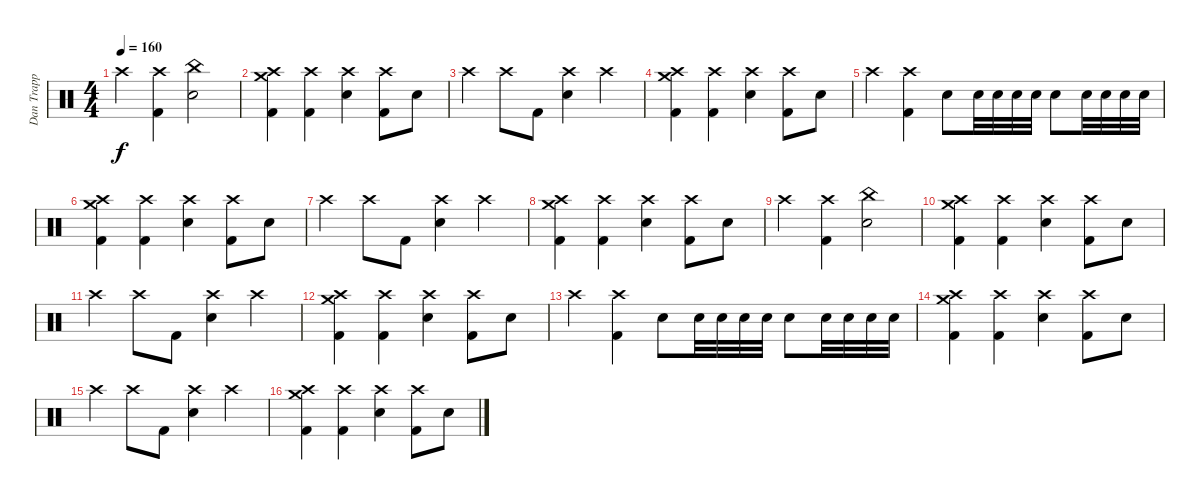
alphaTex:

\track ("Dan Trapp" "Dan Trapp") {instrument percussion}
\staff {score}
\articulation defaults
\ts (4 4)
\tempo 160
\clef neutral
\ks c "Crash high (hit)".4{dy f}
("Crash high (hit)" "Kick (hit) 2").4 ("China (hit)" "Snare (hit) 2").2 |
("Crash medium (hit)" "Crash high (hit)" "Kick (hit) 2").4 ("Crash high (hit)" "Kick (hit) 2").4 ("Crash high (hit)" "Snare (hit) 2").4 ("Crash high (hit)" "Kick (hit) 2").8 "Snare (hit) 2".8 |
"Crash high (hit)".4 "Crash high (hit)".8 "Kick (hit) 2".8 ("Crash high (hit)" "Snare (hit) 2").4 "Crash high (hit)".4 |
("Crash medium (hit)" "Crash high (hit)" "Kick (hit) 2").4 ("Crash high (hit)" "Kick (hit) 2").4 ("Crash high (hit)" "Snare (hit) 2").4 ("Crash high (hit)" "Kick (hit) 2").8 "Snare (hit) 2".8 |
"Crash high (hit)".4 ("Crash high (hit)" "Kick (hit) 2").4 "Snare (hit) 2".8 "Snare (hit) 2".32 "Snare (hit) 2".32 "Snare (hit) 2".32 "Snare (hit) 2".32 "Snare (hit) 2".8 "Snare (hit) 2".32 "Snare (hit) 2".32 "Snare (hit) 2".32 "Snare (hit) 2".32 |
("Crash medium (hit)" "Crash high (hit)" "Kick (hit) 2").4 ("Crash high (hit)" "Kick (hit) 2").4 ("Crash high (hit)" "Snare (hit) 2").4 ("Crash high (hit)" "Kick (hit) 2").8 "Snare (hit) 2".8 |
"Crash high (hit)".4 "Crash high (hit)".8 "Kick (hit) 2".8 ("Crash high (hit)" "Snare (hit) 2").4 "Crash high (hit)".4 |
("Crash medium (hit)" "Crash high (hit)" "Kick (hit) 2").4 ("Crash high (hit)" "Kick (hit) 2").4 ("Crash high (hit)" "Snare (hit) 2").4 ("Crash high (hit)" "Kick (hit) 2").8 "Snare (hit) 2".8 |
"Crash high (hit)".4 ("Crash high (hit)" "Kick (hit) 2").4 ("China (hit)" "Snare (hit) 2").2 |
("Crash medium (hit)" "Crash high (hit)" "Kick (hit) 2").4 ("Crash high (hit)" "Kick (hit) 2").4 ("Crash high (hit)" "Snare (hit) 2").4 ("Crash high (hit)" "Kick (hit) 2").8 "Snare (hit) 2".8 |
"Crash high (hit)".4 "Crash high (hit)".8 "Kick (hit) 2".8 ("Crash high (hit)" "Snare (hit) 2").4 "Crash high (hit)".4 |
("Crash medium (hit)" "Crash high (hit)" "Kick (hit) 2").4 ("Crash high (hit)" "Kick (hit) 2").4 ("Crash high (hit)" "Snare (hit) 2").4 ("Crash high (hit)" "Kick (hit) 2").8 "Snare (hit) 2".8 |
"Crash high (hit)".4 ("Crash high (hit)" "Kick (hit) 2").4 "Snare (hit) 2".8 "Snare (hit) 2".32 "Snare (hit) 2".32 "Snare (hit) 2".32 "Snare (hit) 2".32 "Snare (hit) 2".8 "Snare (hit) 2".32 "Snare (hit) 2".32 "Snare (hit) 2".32 "Snare (hit) 2".32 |
("Crash medium (hit)" "Crash high (hit)" "Kick (hit) 2").4 ("Crash high (hit)" "Kick (hit) 2").4 ("Crash high (hit)" "Snare (hit) 2").4 ("Crash high (hit)" "Kick (hit) 2").8 "Snare (hit) 2".8 |
"Crash high (hit)".4 "Crash high (hit)".8 "Kick (hit) 2".8 ("Crash high (hit)" "Snare (hit) 2").4 "Crash high (hit)".4 |
("Crash medium (hit)" "Crash high (hit)" "Kick (hit) 2").4 ("Crash high (hit)" "Kick (hit) 2").4 ("Crash high (hit)" "Snare (hit) 2").4 ("Crash high (hit)" "Kick (hit) 2").8 "Snare (hit) 2".8
